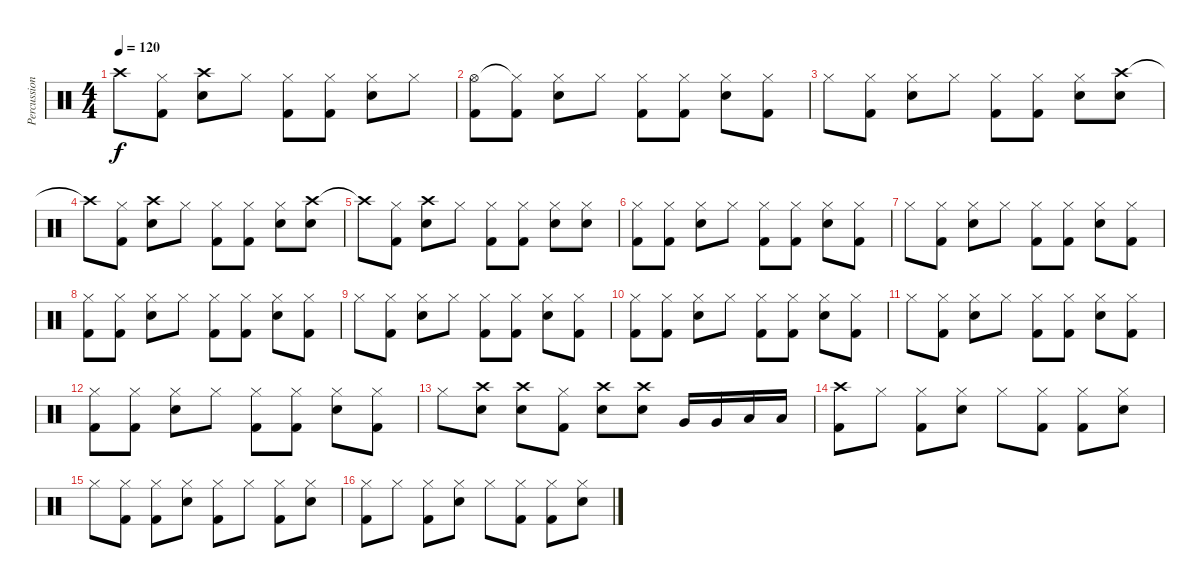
\track ("Percussion" "Percussion") {instrument percussion}
\staff {score}
\articulation defaults
\ts (4 4)
\tempo 120
\clef neutral
\ks c "Crash high (hit)"{t}.8{dy f}
("Hi-Hat (closed)" "Kick (hit) 2").8 ("Crash high (hit)" "Snare (hit) 2").8 "Hi-Hat (closed)".8 ("Hi-Hat (closed)" "Kick (hit) 2").8 ("Hi-Hat (closed)" "Kick (hit) 2").8 ("Hi-Hat (closed)" "Snare (hit) 2").8 "Hi-Hat (closed)".8 |
("Hi-Hat (open)" "Kick (hit) 2").8 ("Hi-Hat (closed)"{t} "Kick (hit) 2").8 ("Hi-Hat (closed)" "Snare (hit) 2").8 "Hi-Hat (closed)".8 ("Hi-Hat (closed)" "Kick (hit) 2").8 ("Hi-Hat (closed)" "Kick (hit) 2").8 ("Hi-Hat (closed)" "Snare (hit) 2").8 ("Hi-Hat (closed)" "Kick (hit) 2").8 |
"Hi-Hat (closed)".8 ("Hi-Hat (closed)" "Kick (hit) 2").8 ("Hi-Hat (closed)" "Snare (hit) 2").8 "Hi-Hat (closed)".8 ("Hi-Hat (closed)" "Kick (hit) 2").8 ("Hi-Hat (closed)" "Kick (hit) 2").8 ("Hi-Hat (closed)" "Snare (hit) 2").8 ("Crash high (hit)" "Snare (hit) 2").8 |
"Crash high (hit)"{t}.8 ("Hi-Hat (closed)" "Kick (hit) 2").8 ("Crash high (hit)" "Snare (hit) 2").8 "Hi-Hat (closed)".8 ("Hi-Hat (closed)" "Kick (hit) 2").8 ("Hi-Hat (closed)" "Kick (hit) 2").8 ("Hi-Hat (closed)" "Snare (hit) 2").8 ("Crash high (hit)" "Snare (hit) 2").8 |
"Crash high (hit)"{t}.8 ("Hi-Hat (closed)" "Kick (hit) 2").8 ("Crash high (hit)" "Snare (hit) 2").8 "Hi-Hat (closed)".8 ("Hi-Hat (closed)" "Kick (hit) 2").8 ("Hi-Hat (closed)" "Kick (hit) 2").8 ("Hi-Hat (closed)" "Snare (hit) 2").8 ("Hi-Hat (closed)" "Snare (hit) 2").8 |
("Hi-Hat (closed)" "Kick (hit) 2").8 ("Hi-Hat (closed)" "Kick (hit) 2").8 ("Hi-Hat (closed)" "Snare (hit) 2").8 "Hi-Hat (closed)".8 ("Hi-Hat (closed)" "Kick (hit) 2").8 ("Hi-Hat (closed)" "Kick (hit) 2").8 ("Hi-Hat (closed)" "Snare (hit) 2").8 ("Hi-Hat (closed)" "Kick (hit) 2").8 |
"Hi-Hat (closed)".8 ("Hi-Hat (closed)" "Kick (hit) 2").8 ("Hi-Hat (closed)" "Snare (hit) 2").8 "Hi-Hat (closed)".8 ("Hi-Hat (closed)" "Kick (hit) 2").8 ("Hi-Hat (closed)" "Kick (hit) 2").8 ("Hi-Hat (closed)" "Snare (hit) 2").8 ("Hi-Hat (closed)" "Kick (hit) 2").8 |
("Hi-Hat (closed)" "Kick (hit) 2").8 ("Hi-Hat (closed)" "Kick (hit) 2").8 ("Hi-Hat (closed)" "Snare (hit) 2").8 "Hi-Hat (closed)".8 ("Hi-Hat (closed)" "Kick (hit) 2").8 ("Hi-Hat (closed)" "Kick (hit) 2").8 ("Hi-Hat (closed)" "Snare (hit) 2").8 ("Hi-Hat (closed)" "Kick (hit) 2").8 |
"Hi-Hat (closed)".8 ("Hi-Hat (closed)" "Kick (hit) 2").8 ("Hi-Hat (closed)" "Snare (hit) 2").8 "Hi-Hat (closed)".8 ("Hi-Hat (closed)" "Kick (hit) 2").8 ("Hi-Hat (closed)" "Kick (hit) 2").8 ("Hi-Hat (closed)" "Snare (hit) 2").8 ("Hi-Hat (closed)" "Kick (hit) 2").8 |
("Hi-Hat (closed)" "Kick (hit) 2").8 ("Hi-Hat (closed)" "Kick (hit) 2").8 ("Hi-Hat (closed)" "Snare (hit) 2").8 "Hi-Hat (closed)".8 ("Hi-Hat (closed)" "Kick (hit) 2").8 ("Hi-Hat (closed)" "Kick (hit) 2").8 ("Hi-Hat (closed)" "Snare (hit) 2").8 ("Hi-Hat (closed)" "Kick (hit) 2").8 |
"Hi-Hat (closed)".8 ("Hi-Hat (closed)" "Kick (hit) 2").8 ("Hi-Hat (closed)" "Snare (hit) 2").8 "Hi-Hat (closed)".8 ("Hi-Hat (closed)" "Kick (hit) 2").8 ("Hi-Hat (closed)" "Kick (hit) 2").8 ("Hi-Hat (closed)" "Snare (hit) 2").8 ("Hi-Hat (closed)" "Kick (hit) 2").8 |
("Hi-Hat (closed)" "Kick (hit) 2").8 ("Hi-Hat (closed)" "Kick (hit) 2").8 ("Hi-Hat (closed)" "Snare (hit) 2").8 "Hi-Hat (closed)".8 ("Hi-Hat (closed)" "Kick (hit) 2").8 ("Hi-Hat (closed)" "Kick (hit) 2").8 ("Hi-Hat (closed)" "Snare (hit) 2").8 ("Hi-Hat (closed)" "Kick (hit) 2").8 |
"Hi-Hat (closed)".8 ("Crash high (hit)" "Snare (hit) 2").8 ("Crash high (hit)" "Snare (hit) 2").8 ("Hi-Hat (closed)" "Kick (hit) 2").8 ("Crash high (hit)" "Snare (hit) 2").8 ("Crash high (hit)" "Snare (hit) 2").8 "Very Low Tom (hit)".16 "Very Low Tom (hit)".16 "Low Floor Tom (hit)".16 "Low Floor Tom (hit)".16 |
("Crash high (hit)" "Kick (hit) 2").8 "Hi-Hat (closed)".8 ("Hi-Hat (closed)" "Kick (hit) 2").8 ("Hi-Hat (closed)" "Snare (hit) 2").8 "Hi-Hat (closed)".8 ("Hi-Hat (closed)" "Kick (hit) 2").8 ("Hi-Hat (closed)" "Kick (hit) 2").8 ("Hi-Hat (closed)" "Snare (hit) 2").8 |
"Hi-Hat (closed)".8 ("Hi-Hat (closed)" "Kick (hit) 2").8 ("Hi-Hat (closed)" "Kick (hit) 2").8 ("Hi-Hat (closed)" "Snare (hit) 2").8 ("Hi-Hat (closed)" "Kick (hit) 2").8 "Hi-Hat (closed)".8 ("Hi-Hat (closed)" "Kick (hit) 2").8 ("Hi-Hat (closed)" "Snare (hit) 2").8 |
("Hi-Hat (closed)" "Kick (hit) 2").8 "Hi-Hat (closed)".8 ("Hi-Hat (closed)" "Kick (hit) 2").8 ("Hi-Hat (closed)" "Snare (hit) 2").8 "Hi-Hat (closed)".8 ("Hi-Hat (closed)" "Kick (hit) 2").8 ("Hi-Hat (closed)" "Kick (hit) 2").8 ("Hi-Hat (closed)" "Snare (hit) 2").8
